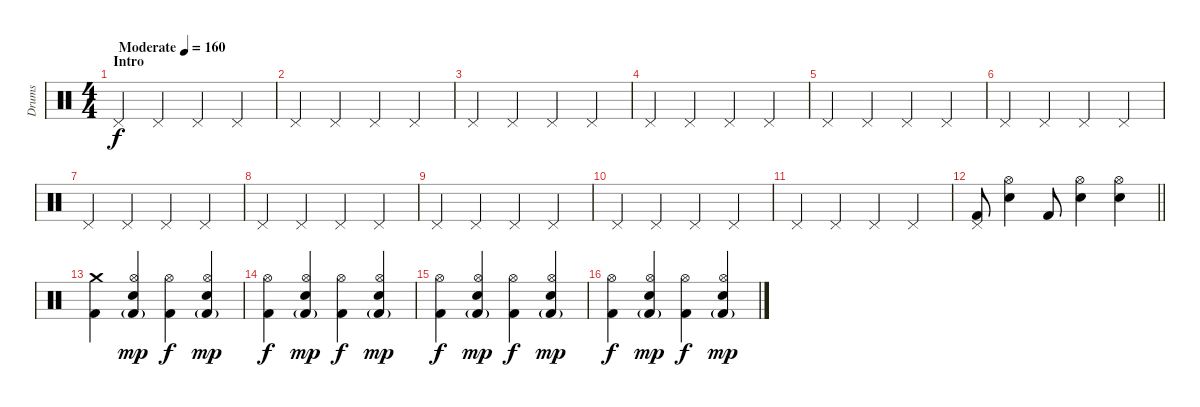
\track ("Drums" "Drums") {instrument percussion}
\staff {score}
\articulation defaults
\ts (4 4)
\section ("" "Intro")
\tempo (160 "Moderate")
\clef neutral
\ks c "Pedal Hi-Hat (hit)".4{dy f} "Pedal Hi-Hat (hit)".4 "Pedal Hi-Hat (hit)".4 "Pedal Hi-Hat (hit)".4
|
"Pedal Hi-Hat (hit)".4 "Pedal Hi-Hat (hit)".4 "Pedal Hi-Hat (hit)".4 "Pedal Hi-Hat (hit)".4 |
"Pedal Hi-Hat (hit)".4 "Pedal Hi-Hat (hit)".4 "Pedal Hi-Hat (hit)".4 "Pedal Hi-Hat (hit)".4 |
"Pedal Hi-Hat (hit)".4 "Pedal Hi-Hat (hit)".4 "Pedal Hi-Hat (hit)".4 "Pedal Hi-Hat (hit)".4 |
"Pedal Hi-Hat (hit)".4 "Pedal Hi-Hat (hit)".4 "Pedal Hi-Hat (hit)".4 "Pedal Hi-Hat (hit)".4 |
"Pedal Hi-Hat (hit)".4 "Pedal Hi-Hat (hit)".4 "Pedal Hi-Hat (hit)".4 "Pedal Hi-Hat (hit)".4 |
"Pedal Hi-Hat (hit)".4 "Pedal Hi-Hat (hit)".4 "Pedal Hi-Hat (hit)".4 "Pedal Hi-Hat (hit)".4 |
"Pedal Hi-Hat (hit)".4 "Pedal Hi-Hat (hit)".4 "Pedal Hi-Hat (hit)".4 "Pedal Hi-Hat (hit)".4 |
"Pedal Hi-Hat (hit)".4 "Pedal Hi-Hat (hit)".4 "Pedal Hi-Hat (hit)".4 "Pedal Hi-Hat (hit)".4 |
"Pedal Hi-Hat (hit)".4 "Pedal Hi-Hat (hit)".4 "Pedal Hi-Hat (hit)".4 "Pedal Hi-Hat (hit)".4 |
"Pedal Hi-Hat (hit)".4 "Pedal Hi-Hat (hit)".4 "Pedal Hi-Hat (hit)".4 "Pedal Hi-Hat (hit)".4 |
\barLineRight lightlight
("Pedal Hi-Hat (hit)" "Kick (hit) 2").8 ("Hi-Hat (open)" "Electric Snare (hit)").4 "Kick (hit) 2".8 ("Hi-Hat (open)" "Electric Snare (hit)").4 ("Hi-Hat (open)" "Electric Snare (hit)").4 |
("Crash medium (hit)" "Kick (hit) 2").4 ("Hi-Hat (open)" "Electric Snare (hit)" "Kick (hit) 2"{g}).4{dy mp} ("Hi-Hat (open)" "Kick (hit) 2").4{dy f} ("Hi-Hat (open)" "Electric Snare (hit)" "Kick (hit) 2"{g}).4{dy mp} |
("Hi-Hat (open)" "Kick (hit) 2").4{dy f} ("Hi-Hat (open)" "Electric Snare (hit)" "Kick (hit) 2"{g}).4{dy mp} ("Hi-Hat (open)" "Kick (hit) 2").4{dy f} ("Hi-Hat (open)" "Electric Snare (hit)" "Kick (hit) 2"{g}).4{dy mp} |
("Hi-Hat (open)" "Kick (hit) 2").4{dy f} ("Hi-Hat (open)" "Electric Snare (hit)" "Kick (hit) 2"{g}).4{dy mp} ("Hi-Hat (open)" "Kick (hit) 2").4{dy f} ("Hi-Hat (open)" "Electric Snare (hit)" "Kick (hit) 2"{g}).4{dy mp} |
("Hi-Hat (open)" "Kick (hit) 2").4{dy f} ("Hi-Hat (open)" "Electric Snare (hit)" "Kick (hit) 2"{g}).4{dy mp} ("Hi-Hat (open)" "Kick (hit) 2").4{dy f} ("Hi-Hat (open)" "Electric Snare (hit)" "Kick (hit) 2"{g}).4{dy mp}
